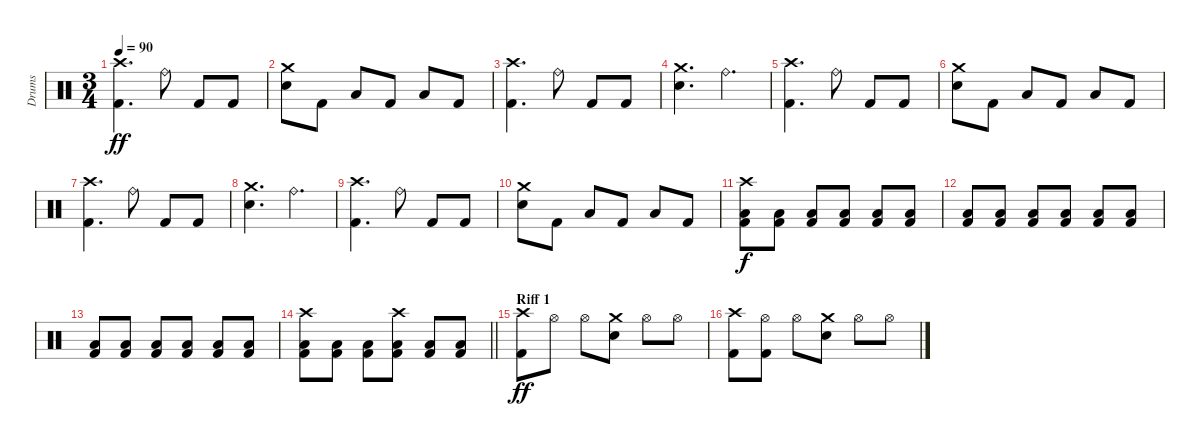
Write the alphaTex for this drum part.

\track ("Drums" "Drums") {instrument percussion}
\staff {score}
\articulation defaults
\ts (3 4)
\tempo 90
\clef neutral
\ks c
("Crash high (hit)" "Kick (hit) 2").4{d dy ff} "Ride (bell)".8 "Kick (hit) 2".8 "Kick (hit) 2".8 |
("Crash medium (hit)" "Electric Snare (hit)").8 "Kick (hit) 2".8 "Low Tom (hit)".8 "Kick (hit) 2".8 "Low Tom (hit)".8 "Kick (hit) 2".8 |
("Crash high (hit)" "Kick (hit) 2").4{d} "Ride (bell)".8 "Kick (hit) 2".8 "Kick (hit) 2".8 |
("Crash medium (hit)" "Electric Snare (hit)").4{d} "Ride (bell)".4{d} |
("Crash high (hit)" "Kick (hit) 2").4{d} "Ride (bell)".8 "Kick (hit) 2".8 "Kick (hit) 2".8 |
("Crash medium (hit)" "Electric Snare (hit)").8 "Kick (hit) 2".8 "Low Tom (hit)".8 "Kick (hit) 2".8 "Low Tom (hit)".8 "Kick (hit) 2".8 |
("Crash high (hit)" "Kick (hit) 2").4{d} "Ride (bell)".8 "Kick (hit) 2".8 "Kick (hit) 2".8 |
("Crash medium (hit)" "Electric Snare (hit)").4{d} "Ride (bell)".4{d} |
("Crash high (hit)" "Kick (hit) 2").4{d} "Ride (bell)".8 "Kick (hit) 2".8 "Kick (hit) 2".8 |
("Crash medium (hit)" "Electric Snare (hit)").8 "Kick (hit) 2".8 "Low Tom (hit)".8 "Kick (hit) 2".8 "Low Tom (hit)".8 "Kick (hit) 2".8 |
("Crash high (hit)" "Low Tom (hit)" "Kick (hit) 2").8{dy f} ("Low Tom (hit)" "Kick (hit) 2").8 ("Low Tom (hit)" "Kick (hit) 2").8 ("Low Tom (hit)" "Kick (hit) 2").8 ("Low Tom (hit)" "Kick (hit) 2").8 ("Low Tom (hit)" "Kick (hit) 2").8 |
("Low Tom (hit)" "Kick (hit) 2").8 ("Low Tom (hit)" "Kick (hit) 2").8 ("Low Tom (hit)" "Kick (hit) 2").8 ("Low Tom (hit)" "Kick (hit) 2").8 ("Low Tom (hit)" "Kick (hit) 2").8 ("Low Tom (hit)" "Kick (hit) 2").8 |
("Low Tom (hit)" "Kick (hit) 2").8 ("Low Tom (hit)" "Kick (hit) 2").8 ("Low Tom (hit)" "Kick (hit) 2").8 ("Low Tom (hit)" "Kick (hit) 2").8 ("Low Tom (hit)" "Kick (hit) 2").8 ("Low Tom (hit)" "Kick (hit) 2").8 |
\barLineRight lightlight
("Crash high (hit)" "Low Tom (hit)" "Kick (hit) 2").8 ("Low Tom (hit)" "Kick (hit) 2").8 ("Low Tom (hit)" "Kick (hit) 2").8 ("Crash high (hit)" "Low Tom (hit)" "Kick (hit) 2").8 ("Low Tom (hit)" "Kick (hit) 2").8 ("Low Tom (hit)" "Kick (hit) 2").8 |
\section ("" "Riff 1")
("Crash high (hit)" "Kick (hit) 2").8{dy ff} "Hi-Hat (open)".8 "Hi-Hat (open)".8 ("Crash medium (hit)" "Electric Snare (hit)").8 "Hi-Hat (open)".8 "Hi-Hat (open)".8 |
("Crash high (hit)" "Kick (hit) 2").8 ("Hi-Hat (open)" "Kick (hit) 2").8 "Hi-Hat (open)".8 ("Crash medium (hit)" "Electric Snare (hit)").8 "Hi-Hat (open)".8 "Hi-Hat (open)".8
